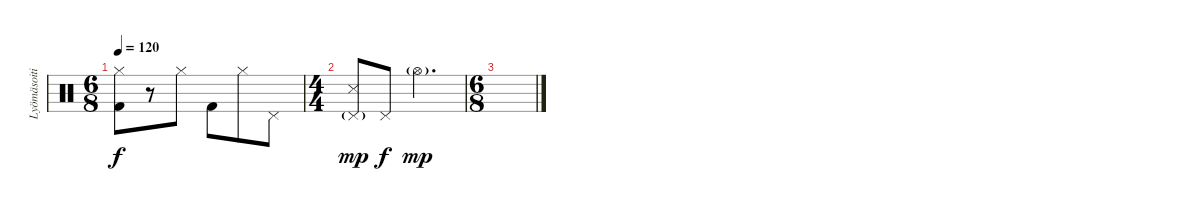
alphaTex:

\track ("Lyömäsoitin" "Lyömäsoiti") {instrument percussion}
\staff {score}
\articulation defaults
\ts (6 8)
\tempo 120
\clef neutral
\ks c
("Hi-Hat (closed)" "Kick (hit) 2").8{dy f} r.8 "Hi-Hat (closed)".8 "Kick (hit) 2".8 "Hi-Hat (closed)".8 "Pedal Hi-Hat (hit)".8 |
\ts (4 4)
("Pedal Hi-Hat (hit)"{g} "Snare (side stick) 3").8{dy mp} "Pedal Hi-Hat (hit)".8{dy f} "Hi-Hat (open)"{g}.2{d dy mp} |
\ts (6 8)
